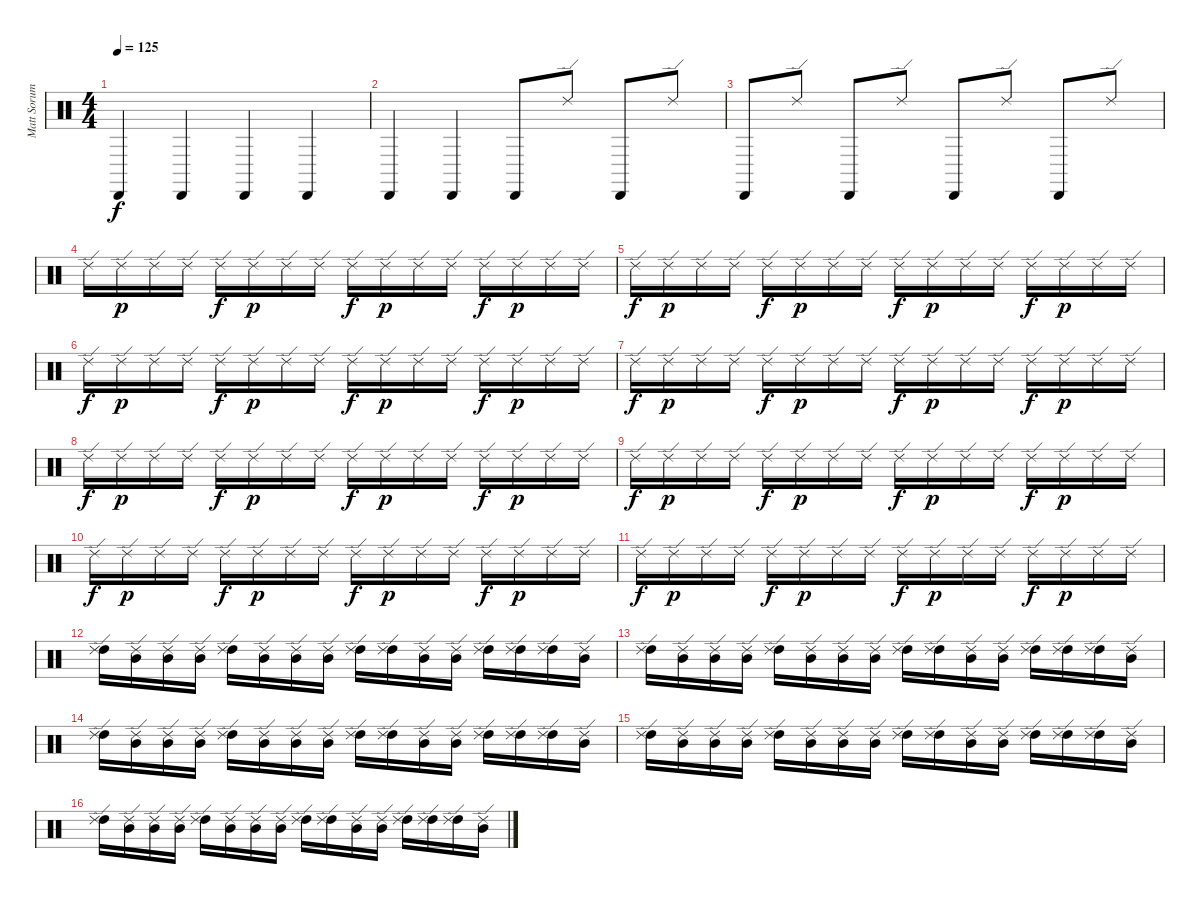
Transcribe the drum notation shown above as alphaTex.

\track ("Matt Sorum" "Matt Sorum") {instrument percussion}
\staff {score}
\articulation defaults
\ts (4 4)
\tempo 125
\clef neutral
\ks c "Cabasa (hit)".4{dy f} "Cabasa (hit)".4 "Cabasa (hit)".4 "Cabasa (hit)".4
|
"Cabasa (hit)".4 "Cabasa (hit)".4 "Cabasa (hit)".8 "Ride (edge) 2".8 "Cabasa (hit)".8 "Ride (edge) 2".8 |
"Cabasa (hit)".8 "Ride (edge) 2".8 "Cabasa (hit)".8 "Ride (edge) 2".8 "Cabasa (hit)".8 "Ride (edge) 2".8 "Cabasa (hit)".8 "Ride (edge) 2".8 |
"Ride (edge) 2".16 "Ride (edge) 2".16{dy p} "Ride (edge) 2".16 "Ride (edge) 2".16 "Ride (edge) 2".16{dy f} "Ride (edge) 2".16{dy p} "Ride (edge) 2".16 "Ride (edge) 2".16 "Ride (edge) 2".16{dy f} "Ride (edge) 2".16{dy p} "Ride (edge) 2".16 "Ride (edge) 2".16 "Ride (edge) 2".16{dy f} "Ride (edge) 2".16{dy p} "Ride (edge) 2".16 "Ride (edge) 2".16 |
"Ride (edge) 2".16{dy f} "Ride (edge) 2".16{dy p} "Ride (edge) 2".16 "Ride (edge) 2".16 "Ride (edge) 2".16{dy f} "Ride (edge) 2".16{dy p} "Ride (edge) 2".16 "Ride (edge) 2".16 "Ride (edge) 2".16{dy f} "Ride (edge) 2".16{dy p} "Ride (edge) 2".16 "Ride (edge) 2".16 "Ride (edge) 2".16{dy f} "Ride (edge) 2".16{dy p} "Ride (edge) 2".16 "Ride (edge) 2".16 |
"Ride (edge) 2".16{dy f} "Ride (edge) 2".16{dy p} "Ride (edge) 2".16 "Ride (edge) 2".16 "Ride (edge) 2".16{dy f} "Ride (edge) 2".16{dy p} "Ride (edge) 2".16 "Ride (edge) 2".16 "Ride (edge) 2".16{dy f} "Ride (edge) 2".16{dy p} "Ride (edge) 2".16 "Ride (edge) 2".16 "Ride (edge) 2".16{dy f} "Ride (edge) 2".16{dy p} "Ride (edge) 2".16 "Ride (edge) 2".16 |
"Ride (edge) 2".16{dy f} "Ride (edge) 2".16{dy p} "Ride (edge) 2".16 "Ride (edge) 2".16 "Ride (edge) 2".16{dy f} "Ride (edge) 2".16{dy p} "Ride (edge) 2".16 "Ride (edge) 2".16 "Ride (edge) 2".16{dy f} "Ride (edge) 2".16{dy p} "Ride (edge) 2".16 "Ride (edge) 2".16 "Ride (edge) 2".16{dy f} "Ride (edge) 2".16{dy p} "Ride (edge) 2".16 "Ride (edge) 2".16 |
"Ride (edge) 2".16{dy f} "Ride (edge) 2".16{dy p} "Ride (edge) 2".16 "Ride (edge) 2".16 "Ride (edge) 2".16{dy f} "Ride (edge) 2".16{dy p} "Ride (edge) 2".16 "Ride (edge) 2".16 "Ride (edge) 2".16{dy f} "Ride (edge) 2".16{dy p} "Ride (edge) 2".16 "Ride (edge) 2".16 "Ride (edge) 2".16{dy f} "Ride (edge) 2".16{dy p} "Ride (edge) 2".16 "Ride (edge) 2".16 |
"Ride (edge) 2".16{dy f} "Ride (edge) 2".16{dy p} "Ride (edge) 2".16 "Ride (edge) 2".16 "Ride (edge) 2".16{dy f} "Ride (edge) 2".16{dy p} "Ride (edge) 2".16 "Ride (edge) 2".16 "Ride (edge) 2".16{dy f} "Ride (edge) 2".16{dy p} "Ride (edge) 2".16 "Ride (edge) 2".16 "Ride (edge) 2".16{dy f} "Ride (edge) 2".16{dy p} "Ride (edge) 2".16 "Ride (edge) 2".16 |
"Ride (edge) 2".16{dy f} "Ride (edge) 2".16{dy p} "Ride (edge) 2".16 "Ride (edge) 2".16 "Ride (edge) 2".16{dy f} "Ride (edge) 2".16{dy p} "Ride (edge) 2".16 "Ride (edge) 2".16 "Ride (edge) 2".16{dy f} "Ride (edge) 2".16{dy p} "Ride (edge) 2".16 "Ride (edge) 2".16 "Ride (edge) 2".16{dy f} "Ride (edge) 2".16{dy p} "Ride (edge) 2".16 "Ride (edge) 2".16 |
"Ride (edge) 2".16{dy f} "Ride (edge) 2".16{dy p} "Ride (edge) 2".16 "Ride (edge) 2".16 "Ride (edge) 2".16{dy f} "Ride (edge) 2".16{dy p} "Ride (edge) 2".16 "Ride (edge) 2".16 "Ride (edge) 2".16{dy f} "Ride (edge) 2".16{dy p} "Ride (edge) 2".16 "Ride (edge) 2".16 "Ride (edge) 2".16{dy f} "Ride (edge) 2".16{dy p} "Ride (edge) 2".16 "Ride (edge) 2".16 |
("High Tom (hit)" "Ride (edge) 2").16 ("Mid Tom (hit)" "Ride (edge) 2").16 ("Mid Tom (hit)" "Ride (edge) 2").16 ("Mid Tom (hit)" "Ride (edge) 2").16 ("High Tom (hit)" "Ride (edge) 2").16 ("Mid Tom (hit)" "Ride (edge) 2").16 ("Mid Tom (hit)" "Ride (edge) 2").16 ("Mid Tom (hit)" "Ride (edge) 2").16 ("High Tom (hit)" "Ride (edge) 2").16 ("High Tom (hit)" "Ride (edge) 2").16 ("Mid Tom (hit)" "Ride (edge) 2").16 ("Mid Tom (hit)" "Ride (edge) 2").16 ("High Tom (hit)" "Ride (edge) 2").16 ("High Tom (hit)" "Ride (edge) 2").16 ("High Tom (hit)" "Ride (edge) 2").16 ("Mid Tom (hit)" "Ride (edge) 2").16 |
("High Tom (hit)" "Ride (edge) 2").16 ("Mid Tom (hit)" "Ride (edge) 2").16 ("Mid Tom (hit)" "Ride (edge) 2").16 ("Mid Tom (hit)" "Ride (edge) 2").16 ("High Tom (hit)" "Ride (edge) 2").16 ("Mid Tom (hit)" "Ride (edge) 2").16 ("Mid Tom (hit)" "Ride (edge) 2").16 ("Mid Tom (hit)" "Ride (edge) 2").16 ("High Tom (hit)" "Ride (edge) 2").16 ("High Tom (hit)" "Ride (edge) 2").16 ("Mid Tom (hit)" "Ride (edge) 2").16 ("Mid Tom (hit)" "Ride (edge) 2").16 ("High Tom (hit)" "Ride (edge) 2").16 ("High Tom (hit)" "Ride (edge) 2").16 ("High Tom (hit)" "Ride (edge) 2").16 ("Mid Tom (hit)" "Ride (edge) 2").16 |
("High Tom (hit)" "Ride (edge) 2").16 ("Mid Tom (hit)" "Ride (edge) 2").16 ("Mid Tom (hit)" "Ride (edge) 2").16 ("Mid Tom (hit)" "Ride (edge) 2").16 ("High Tom (hit)" "Ride (edge) 2").16 ("Mid Tom (hit)" "Ride (edge) 2").16 ("Mid Tom (hit)" "Ride (edge) 2").16 ("Mid Tom (hit)" "Ride (edge) 2").16 ("High Tom (hit)" "Ride (edge) 2").16 ("High Tom (hit)" "Ride (edge) 2").16 ("Mid Tom (hit)" "Ride (edge) 2").16 ("Mid Tom (hit)" "Ride (edge) 2").16 ("High Tom (hit)" "Ride (edge) 2").16 ("High Tom (hit)" "Ride (edge) 2").16 ("High Tom (hit)" "Ride (edge) 2").16 ("Mid Tom (hit)" "Ride (edge) 2").16 |
("High Tom (hit)" "Ride (edge) 2").16 ("Mid Tom (hit)" "Ride (edge) 2").16 ("Mid Tom (hit)" "Ride (edge) 2").16 ("Mid Tom (hit)" "Ride (edge) 2").16 ("High Tom (hit)" "Ride (edge) 2").16 ("Mid Tom (hit)" "Ride (edge) 2").16 ("Mid Tom (hit)" "Ride (edge) 2").16 ("Mid Tom (hit)" "Ride (edge) 2").16 ("High Tom (hit)" "Ride (edge) 2").16 ("High Tom (hit)" "Ride (edge) 2").16 ("Mid Tom (hit)" "Ride (edge) 2").16 ("Mid Tom (hit)" "Ride (edge) 2").16 ("High Tom (hit)" "Ride (edge) 2").16 ("High Tom (hit)" "Ride (edge) 2").16 ("High Tom (hit)" "Ride (edge) 2").16 ("Mid Tom (hit)" "Ride (edge) 2").16 |
("High Tom (hit)" "Ride (edge) 2").16 ("Mid Tom (hit)" "Ride (edge) 2").16 ("Mid Tom (hit)" "Ride (edge) 2").16 ("Mid Tom (hit)" "Ride (edge) 2").16 ("High Tom (hit)" "Ride (edge) 2").16 ("Mid Tom (hit)" "Ride (edge) 2").16 ("Mid Tom (hit)" "Ride (edge) 2").16 ("Mid Tom (hit)" "Ride (edge) 2").16 ("High Tom (hit)" "Ride (edge) 2").16 ("High Tom (hit)" "Ride (edge) 2").16 ("Mid Tom (hit)" "Ride (edge) 2").16 ("Mid Tom (hit)" "Ride (edge) 2").16 ("High Tom (hit)" "Ride (edge) 2").16 ("High Tom (hit)" "Ride (edge) 2").16 ("High Tom (hit)" "Ride (edge) 2").16 ("Mid Tom (hit)" "Ride (edge) 2").16
